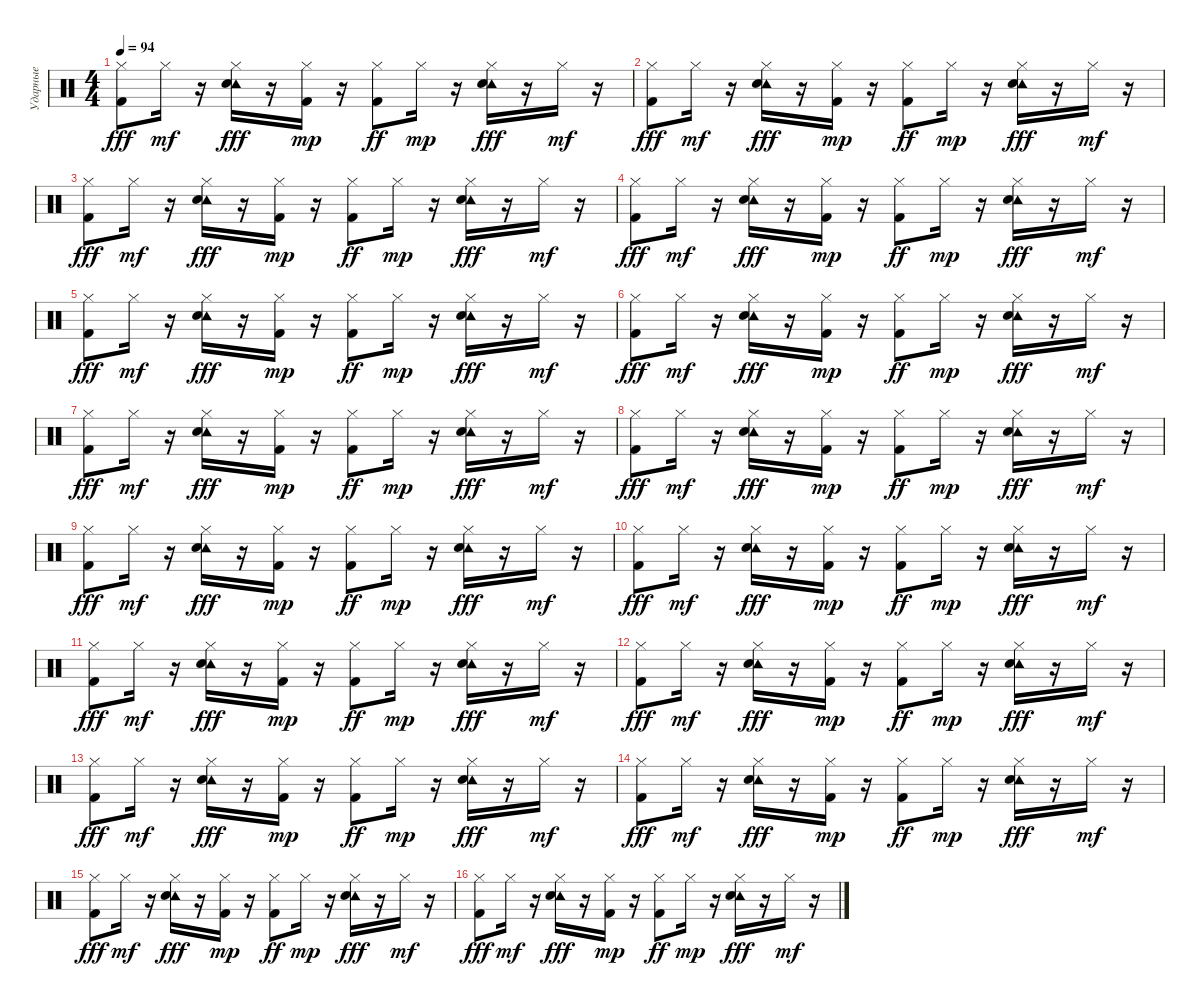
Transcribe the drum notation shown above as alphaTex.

\track ("Ударные" "Ударные") {instrument percussion}
\staff {score}
\articulation defaults
\ts (4 4)
\tempo 94
\clef neutral
\ks c
("Kick (hit) 2" "Hi-Hat (closed)").8{dy fff} "Hi-Hat (closed)".16{dy mf} r.16 ("Tambourine (hit)" "Hi-Hat (closed)" "Snare (hit) 2").16{dy fff} r.16 ("Kick (hit) 2" "Hi-Hat (closed)").16{dy mp} r.16 ("Kick (hit) 2" "Hi-Hat (closed)").8{dy ff} "Hi-Hat (closed)".16{dy mp} r.16 ("Tambourine (hit)" "Hi-Hat (closed)" "Snare (hit) 2").16{dy fff} r.16 "Hi-Hat (closed)".16{dy mf} r.16 |
("Kick (hit) 2" "Hi-Hat (closed)").8{dy fff} "Hi-Hat (closed)".16{dy mf} r.16 ("Tambourine (hit)" "Hi-Hat (closed)" "Snare (hit) 2").16{dy fff} r.16 ("Kick (hit) 2" "Hi-Hat (closed)").16{dy mp} r.16 ("Kick (hit) 2" "Hi-Hat (closed)").8{dy ff} "Hi-Hat (closed)".16{dy mp} r.16 ("Tambourine (hit)" "Hi-Hat (closed)" "Snare (hit) 2").16{dy fff} r.16 "Hi-Hat (closed)".16{dy mf} r.16 |
("Kick (hit) 2" "Hi-Hat (closed)").8{dy fff} "Hi-Hat (closed)".16{dy mf} r.16 ("Tambourine (hit)" "Hi-Hat (closed)" "Snare (hit) 2").16{dy fff} r.16 ("Kick (hit) 2" "Hi-Hat (closed)").16{dy mp} r.16 ("Kick (hit) 2" "Hi-Hat (closed)").8{dy ff} "Hi-Hat (closed)".16{dy mp} r.16 ("Tambourine (hit)" "Hi-Hat (closed)" "Snare (hit) 2").16{dy fff} r.16 "Hi-Hat (closed)".16{dy mf} r.16 |
("Kick (hit) 2" "Hi-Hat (closed)").8{dy fff} "Hi-Hat (closed)".16{dy mf} r.16 ("Tambourine (hit)" "Hi-Hat (closed)" "Snare (hit) 2").16{dy fff} r.16 ("Kick (hit) 2" "Hi-Hat (closed)").16{dy mp} r.16 ("Kick (hit) 2" "Hi-Hat (closed)").8{dy ff} "Hi-Hat (closed)".16{dy mp} r.16 ("Tambourine (hit)" "Hi-Hat (closed)" "Snare (hit) 2").16{dy fff} r.16 "Hi-Hat (closed)".16{dy mf} r.16 |
("Kick (hit) 2" "Hi-Hat (closed)").8{dy fff} "Hi-Hat (closed)".16{dy mf} r.16 ("Tambourine (hit)" "Hi-Hat (closed)" "Snare (hit) 2").16{dy fff} r.16 ("Kick (hit) 2" "Hi-Hat (closed)").16{dy mp} r.16 ("Kick (hit) 2" "Hi-Hat (closed)").8{dy ff} "Hi-Hat (closed)".16{dy mp} r.16 ("Tambourine (hit)" "Hi-Hat (closed)" "Snare (hit) 2").16{dy fff} r.16 "Hi-Hat (closed)".16{dy mf} r.16 |
("Kick (hit) 2" "Hi-Hat (closed)").8{dy fff} "Hi-Hat (closed)".16{dy mf} r.16 ("Tambourine (hit)" "Hi-Hat (closed)" "Snare (hit) 2").16{dy fff} r.16 ("Kick (hit) 2" "Hi-Hat (closed)").16{dy mp} r.16 ("Kick (hit) 2" "Hi-Hat (closed)").8{dy ff} "Hi-Hat (closed)".16{dy mp} r.16 ("Tambourine (hit)" "Hi-Hat (closed)" "Snare (hit) 2").16{dy fff} r.16 "Hi-Hat (closed)".16{dy mf} r.16 |
("Kick (hit) 2" "Hi-Hat (closed)").8{dy fff} "Hi-Hat (closed)".16{dy mf} r.16 ("Tambourine (hit)" "Hi-Hat (closed)" "Snare (hit) 2").16{dy fff} r.16 ("Kick (hit) 2" "Hi-Hat (closed)").16{dy mp} r.16 ("Kick (hit) 2" "Hi-Hat (closed)").8{dy ff} "Hi-Hat (closed)".16{dy mp} r.16 ("Tambourine (hit)" "Hi-Hat (closed)" "Snare (hit) 2").16{dy fff} r.16 "Hi-Hat (closed)".16{dy mf} r.16 |
("Kick (hit) 2" "Hi-Hat (closed)").8{dy fff} "Hi-Hat (closed)".16{dy mf} r.16 ("Tambourine (hit)" "Hi-Hat (closed)" "Snare (hit) 2").16{dy fff} r.16 ("Kick (hit) 2" "Hi-Hat (closed)").16{dy mp} r.16 ("Kick (hit) 2" "Hi-Hat (closed)").8{dy ff} "Hi-Hat (closed)".16{dy mp} r.16 ("Tambourine (hit)" "Hi-Hat (closed)" "Snare (hit) 2").16{dy fff} r.16 "Hi-Hat (closed)".16{dy mf} r.16 |
("Kick (hit) 2" "Hi-Hat (closed)").8{dy fff} "Hi-Hat (closed)".16{dy mf} r.16 ("Tambourine (hit)" "Hi-Hat (closed)" "Snare (hit) 2").16{dy fff} r.16 ("Kick (hit) 2" "Hi-Hat (closed)").16{dy mp} r.16 ("Kick (hit) 2" "Hi-Hat (closed)").8{dy ff} "Hi-Hat (closed)".16{dy mp} r.16 ("Tambourine (hit)" "Hi-Hat (closed)" "Snare (hit) 2").16{dy fff} r.16 "Hi-Hat (closed)".16{dy mf} r.16 |
("Kick (hit) 2" "Hi-Hat (closed)").8{dy fff} "Hi-Hat (closed)".16{dy mf} r.16 ("Tambourine (hit)" "Hi-Hat (closed)" "Snare (hit) 2").16{dy fff} r.16 ("Kick (hit) 2" "Hi-Hat (closed)").16{dy mp} r.16 ("Kick (hit) 2" "Hi-Hat (closed)").8{dy ff} "Hi-Hat (closed)".16{dy mp} r.16 ("Tambourine (hit)" "Hi-Hat (closed)" "Snare (hit) 2").16{dy fff} r.16 "Hi-Hat (closed)".16{dy mf} r.16 |
("Kick (hit) 2" "Hi-Hat (closed)").8{dy fff} "Hi-Hat (closed)".16{dy mf} r.16 ("Tambourine (hit)" "Hi-Hat (closed)" "Snare (hit) 2").16{dy fff} r.16 ("Kick (hit) 2" "Hi-Hat (closed)").16{dy mp} r.16 ("Kick (hit) 2" "Hi-Hat (closed)").8{dy ff} "Hi-Hat (closed)".16{dy mp} r.16 ("Tambourine (hit)" "Hi-Hat (closed)" "Snare (hit) 2").16{dy fff} r.16 "Hi-Hat (closed)".16{dy mf} r.16 |
("Kick (hit) 2" "Hi-Hat (closed)").8{dy fff} "Hi-Hat (closed)".16{dy mf} r.16 ("Tambourine (hit)" "Hi-Hat (closed)" "Snare (hit) 2").16{dy fff} r.16 ("Kick (hit) 2" "Hi-Hat (closed)").16{dy mp} r.16 ("Kick (hit) 2" "Hi-Hat (closed)").8{dy ff} "Hi-Hat (closed)".16{dy mp} r.16 ("Tambourine (hit)" "Hi-Hat (closed)" "Snare (hit) 2").16{dy fff} r.16 "Hi-Hat (closed)".16{dy mf} r.16 |
("Kick (hit) 2" "Hi-Hat (closed)").8{dy fff} "Hi-Hat (closed)".16{dy mf} r.16 ("Tambourine (hit)" "Hi-Hat (closed)" "Snare (hit) 2").16{dy fff} r.16 ("Kick (hit) 2" "Hi-Hat (closed)").16{dy mp} r.16 ("Kick (hit) 2" "Hi-Hat (closed)").8{dy ff} "Hi-Hat (closed)".16{dy mp} r.16 ("Tambourine (hit)" "Hi-Hat (closed)" "Snare (hit) 2").16{dy fff} r.16 "Hi-Hat (closed)".16{dy mf} r.16 |
("Kick (hit) 2" "Hi-Hat (closed)").8{dy fff} "Hi-Hat (closed)".16{dy mf} r.16 ("Tambourine (hit)" "Hi-Hat (closed)" "Snare (hit) 2").16{dy fff} r.16 ("Kick (hit) 2" "Hi-Hat (closed)").16{dy mp} r.16 ("Kick (hit) 2" "Hi-Hat (closed)").8{dy ff} "Hi-Hat (closed)".16{dy mp} r.16 ("Tambourine (hit)" "Hi-Hat (closed)" "Snare (hit) 2").16{dy fff} r.16 "Hi-Hat (closed)".16{dy mf} r.16 |
("Kick (hit) 2" "Hi-Hat (closed)").8{dy fff} "Hi-Hat (closed)".16{dy mf} r.16 ("Tambourine (hit)" "Hi-Hat (closed)" "Snare (hit) 2").16{dy fff} r.16 ("Kick (hit) 2" "Hi-Hat (closed)").16{dy mp} r.16 ("Kick (hit) 2" "Hi-Hat (closed)").8{dy ff} "Hi-Hat (closed)".16{dy mp} r.16 ("Tambourine (hit)" "Hi-Hat (closed)" "Snare (hit) 2").16{dy fff} r.16 "Hi-Hat (closed)".16{dy mf} r.16 |
("Kick (hit) 2" "Hi-Hat (closed)").8{dy fff} "Hi-Hat (closed)".16{dy mf} r.16 ("Tambourine (hit)" "Hi-Hat (closed)" "Snare (hit) 2").16{dy fff} r.16 ("Kick (hit) 2" "Hi-Hat (closed)").16{dy mp} r.16 ("Kick (hit) 2" "Hi-Hat (closed)").8{dy ff} "Hi-Hat (closed)".16{dy mp} r.16 ("Tambourine (hit)" "Hi-Hat (closed)" "Snare (hit) 2").16{dy fff} r.16 "Hi-Hat (closed)".16{dy mf} r.16
